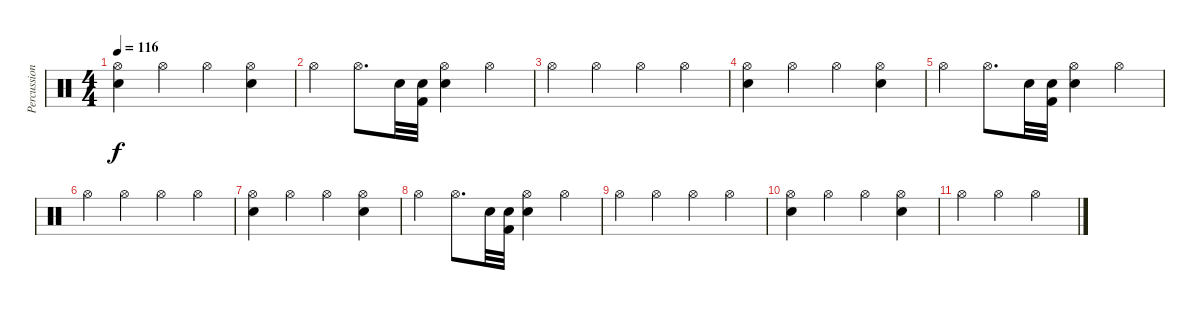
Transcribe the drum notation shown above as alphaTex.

\track ("Percussion" "Percussion") {instrument percussion}
\staff {score}
\articulation defaults
\ts (4 4)
\tempo 116
\clef neutral
\ks c
("Snare (hit) 2" "Hi-Hat (open)").4{dy f} "Hi-Hat (open)".4 "Hi-Hat (open)".4 ("Snare (hit) 2" "Hi-Hat (open)").4 |
"Hi-Hat (open)".4 "Hi-Hat (open)".8{d} "Snare (hit) 2".32 ("Kick (hit) 2" "Snare (hit) 2").32 ("Snare (hit) 2" "Hi-Hat (open)").4 "Hi-Hat (open)".4 |
"Hi-Hat (open)".4 "Hi-Hat (open)".4 "Hi-Hat (open)".4 "Hi-Hat (open)".4 |
("Snare (hit) 2" "Hi-Hat (open)").4 "Hi-Hat (open)".4 "Hi-Hat (open)".4 ("Snare (hit) 2" "Hi-Hat (open)").4 |
"Hi-Hat (open)".4 "Hi-Hat (open)".8{d} "Snare (hit) 2".32 ("Kick (hit) 2" "Snare (hit) 2").32 ("Snare (hit) 2" "Hi-Hat (open)").4 "Hi-Hat (open)".4 |
"Hi-Hat (open)".4 "Hi-Hat (open)".4 "Hi-Hat (open)".4 "Hi-Hat (open)".4 |
("Snare (hit) 2" "Hi-Hat (open)").4 "Hi-Hat (open)".4 "Hi-Hat (open)".4 ("Snare (hit) 2" "Hi-Hat (open)").4 |
"Hi-Hat (open)".4 "Hi-Hat (open)".8{d} "Snare (hit) 2".32 ("Kick (hit) 2" "Snare (hit) 2").32 ("Snare (hit) 2" "Hi-Hat (open)").4 "Hi-Hat (open)".4 |
"Hi-Hat (open)".4 "Hi-Hat (open)".4 "Hi-Hat (open)".4 "Hi-Hat (open)".4 |
("Snare (hit) 2" "Hi-Hat (open)").4 "Hi-Hat (open)".4 "Hi-Hat (open)".4 ("Snare (hit) 2" "Hi-Hat (open)").4 |
"Hi-Hat (open)".4 "Hi-Hat (open)".4 "Hi-Hat (open)".2
